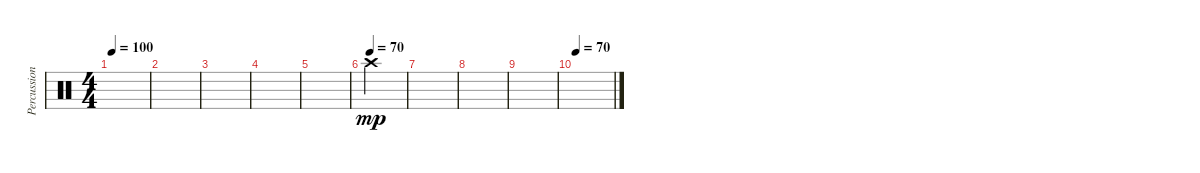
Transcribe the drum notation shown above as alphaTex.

\track ("Percussions" "Percussion") {instrument percussion}
\staff {score}
\articulation defaults
\ts (4 4)
\tempo 100
\clef neutral
\ks c
|
|
|
|
|
\tempo 40
\tempo 85
\tempo (70)
"Crash high (hit)".4{dy mp} |
|
|
|
\tempo 40
\tempo 85
\tempo 70
